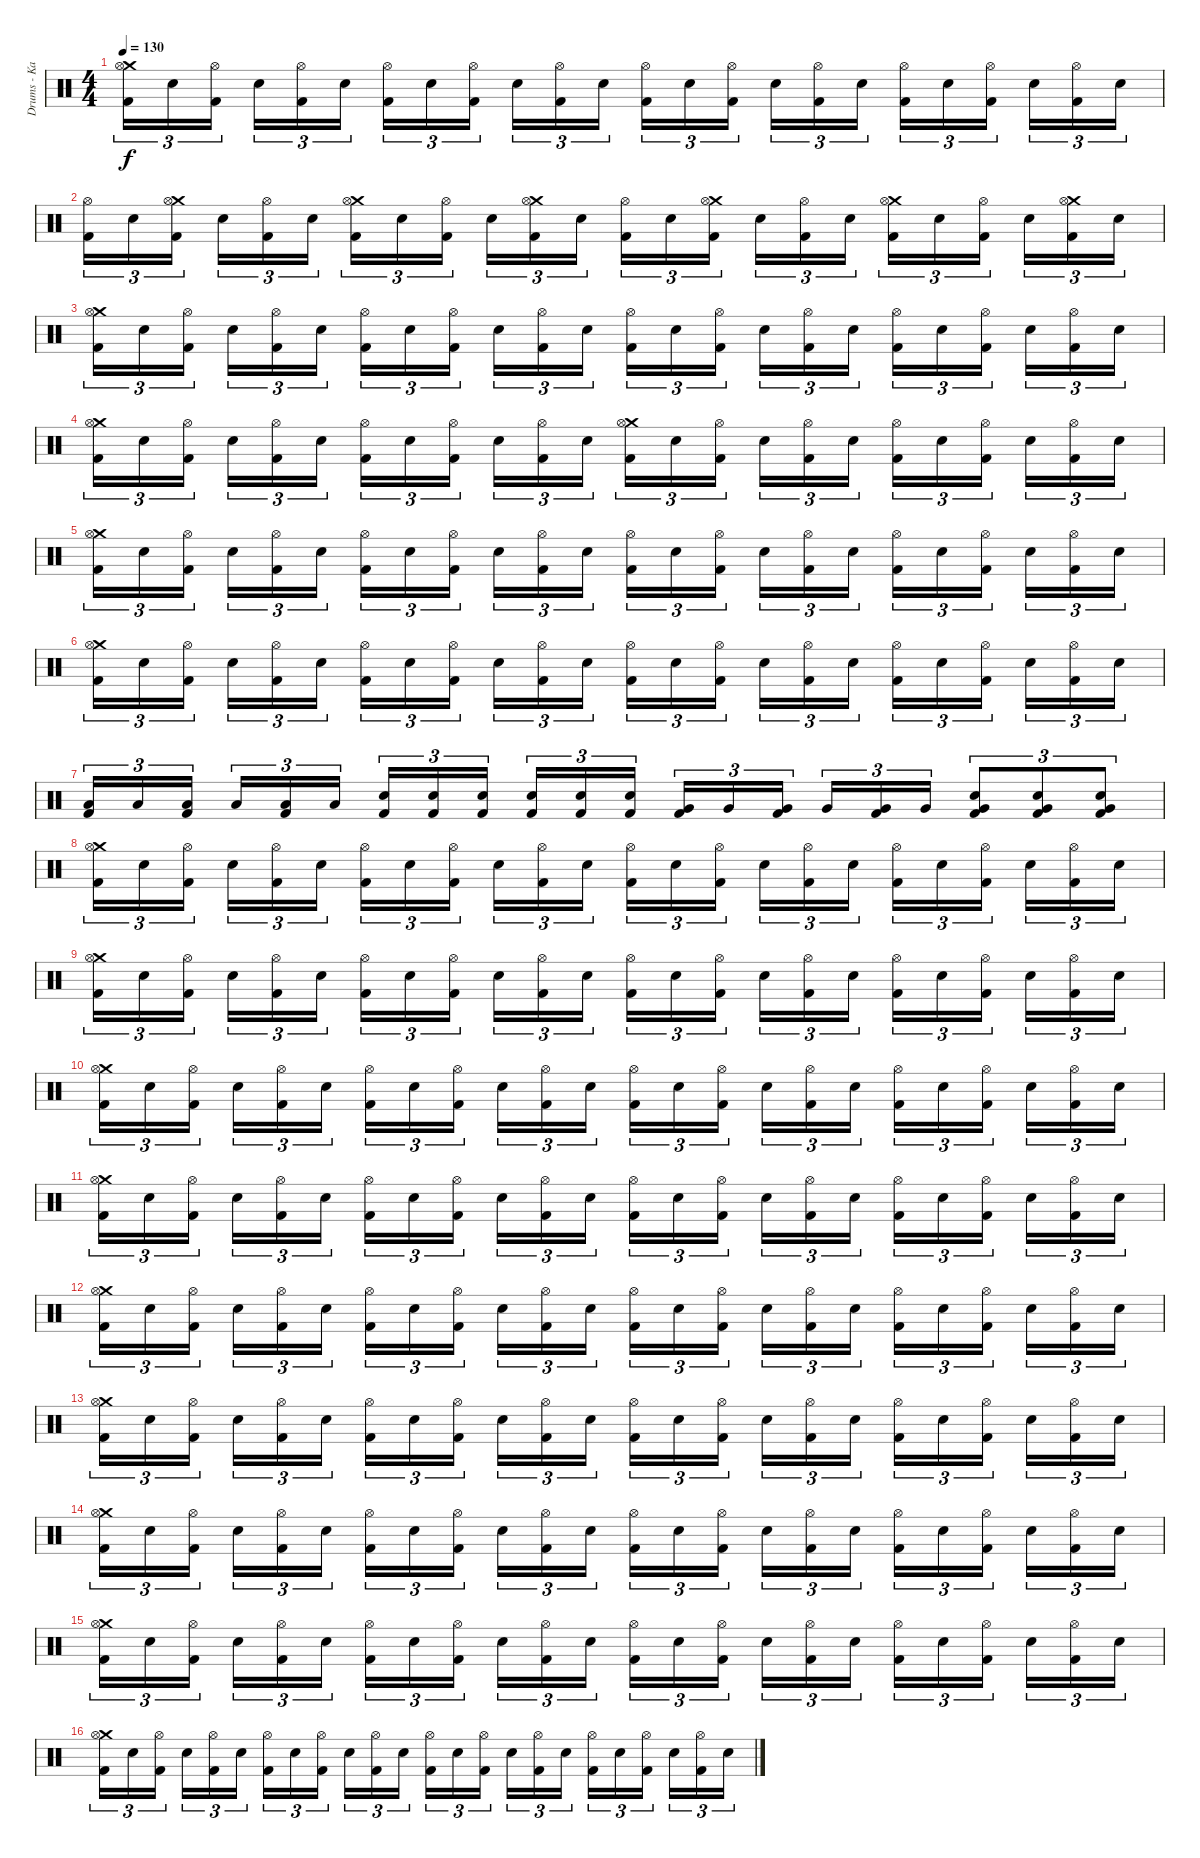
\track ("Drums - Kai Hahto " "Drums - Ka") {instrument percussion}
\staff {score}
\articulation defaults
\ts (4 4)
\tempo 130
\clef neutral
\ks c
("Crash medium (hit)" "Hi-Hat (open)" "Kick (hit) 2").16{tu (3 2) dy f} "Snare (hit) 2".16{tu (3 2)} ("Hi-Hat (open)" "Kick (hit) 2").16{tu (3 2) beam splitsecondary} "Snare (hit) 2".16{tu (3 2)} ("Hi-Hat (open)" "Kick (hit) 2").16{tu (3 2)} "Snare (hit) 2".16{tu (3 2)} ("Hi-Hat (open)" "Kick (hit) 2").16{tu (3 2)} "Snare (hit) 2".16{tu (3 2)} ("Hi-Hat (open)" "Kick (hit) 2").16{tu (3 2) beam splitsecondary} "Snare (hit) 2".16{tu (3 2)} ("Hi-Hat (open)" "Kick (hit) 2").16{tu (3 2)} "Snare (hit) 2".16{tu (3 2)} ("Hi-Hat (open)" "Kick (hit) 2").16{tu (3 2)} "Snare (hit) 2".16{tu (3 2)} ("Hi-Hat (open)" "Kick (hit) 2").16{tu (3 2) beam splitsecondary} "Snare (hit) 2".16{tu (3 2)} ("Hi-Hat (open)" "Kick (hit) 2").16{tu (3 2)} "Snare (hit) 2".16{tu (3 2)} ("Hi-Hat (open)" "Kick (hit) 2").16{tu (3 2)} "Snare (hit) 2".16{tu (3 2)} ("Hi-Hat (open)" "Kick (hit) 2").16{tu (3 2) beam splitsecondary} "Snare (hit) 2".16{tu (3 2)} ("Hi-Hat (open)" "Kick (hit) 2").16{tu (3 2)} "Snare (hit) 2".16{tu (3 2)} |
("Hi-Hat (open)" "Kick (hit) 2").16{tu (3 2)} "Snare (hit) 2".16{tu (3 2)} ("Crash medium (hit)" "Hi-Hat (open)" "Kick (hit) 2").16{tu (3 2) beam splitsecondary} "Snare (hit) 2".16{tu (3 2)} ("Hi-Hat (open)" "Kick (hit) 2").16{tu (3 2)} "Snare (hit) 2".16{tu (3 2)} ("Crash medium (hit)" "Hi-Hat (open)" "Kick (hit) 2").16{tu (3 2)} "Snare (hit) 2".16{tu (3 2)} ("Hi-Hat (open)" "Kick (hit) 2").16{tu (3 2) beam splitsecondary} "Snare (hit) 2".16{tu (3 2)} ("Crash medium (hit)" "Hi-Hat (open)" "Kick (hit) 2").16{tu (3 2)} "Snare (hit) 2".16{tu (3 2)} ("Hi-Hat (open)" "Kick (hit) 2").16{tu (3 2)} "Snare (hit) 2".16{tu (3 2)} ("Crash medium (hit)" "Hi-Hat (open)" "Kick (hit) 2").16{tu (3 2) beam splitsecondary} "Snare (hit) 2".16{tu (3 2)} ("Hi-Hat (open)" "Kick (hit) 2").16{tu (3 2)} "Snare (hit) 2".16{tu (3 2)} ("Crash medium (hit)" "Hi-Hat (open)" "Kick (hit) 2").16{tu (3 2)} "Snare (hit) 2".16{tu (3 2)} ("Hi-Hat (open)" "Kick (hit) 2").16{tu (3 2) beam splitsecondary} "Snare (hit) 2".16{tu (3 2)} ("Crash medium (hit)" "Hi-Hat (open)" "Kick (hit) 2").16{tu (3 2)} "Snare (hit) 2".16{tu (3 2)} |
("Crash medium (hit)" "Hi-Hat (open)" "Kick (hit) 2").16{tu (3 2)} "Snare (hit) 2".16{tu (3 2)} ("Hi-Hat (open)" "Kick (hit) 2").16{tu (3 2) beam splitsecondary} "Snare (hit) 2".16{tu (3 2)} ("Hi-Hat (open)" "Kick (hit) 2").16{tu (3 2)} "Snare (hit) 2".16{tu (3 2)} ("Hi-Hat (open)" "Kick (hit) 2").16{tu (3 2)} "Snare (hit) 2".16{tu (3 2)} ("Hi-Hat (open)" "Kick (hit) 2").16{tu (3 2) beam splitsecondary} "Snare (hit) 2".16{tu (3 2)} ("Hi-Hat (open)" "Kick (hit) 2").16{tu (3 2)} "Snare (hit) 2".16{tu (3 2)} ("Hi-Hat (open)" "Kick (hit) 2").16{tu (3 2)} "Snare (hit) 2".16{tu (3 2)} ("Hi-Hat (open)" "Kick (hit) 2").16{tu (3 2) beam splitsecondary} "Snare (hit) 2".16{tu (3 2)} ("Hi-Hat (open)" "Kick (hit) 2").16{tu (3 2)} "Snare (hit) 2".16{tu (3 2)} ("Hi-Hat (open)" "Kick (hit) 2").16{tu (3 2)} "Snare (hit) 2".16{tu (3 2)} ("Hi-Hat (open)" "Kick (hit) 2").16{tu (3 2) beam splitsecondary} "Snare (hit) 2".16{tu (3 2)} ("Hi-Hat (open)" "Kick (hit) 2").16{tu (3 2)} "Snare (hit) 2".16{tu (3 2)} |
("Crash medium (hit)" "Hi-Hat (open)" "Kick (hit) 2").16{tu (3 2)} "Snare (hit) 2".16{tu (3 2)} ("Hi-Hat (open)" "Kick (hit) 2").16{tu (3 2) beam splitsecondary} "Snare (hit) 2".16{tu (3 2)} ("Hi-Hat (open)" "Kick (hit) 2").16{tu (3 2)} "Snare (hit) 2".16{tu (3 2)} ("Hi-Hat (open)" "Kick (hit) 2").16{tu (3 2)} "Snare (hit) 2".16{tu (3 2)} ("Hi-Hat (open)" "Kick (hit) 2").16{tu (3 2) beam splitsecondary} "Snare (hit) 2".16{tu (3 2)} ("Hi-Hat (open)" "Kick (hit) 2").16{tu (3 2)} "Snare (hit) 2".16{tu (3 2)} ("Crash medium (hit)" "Hi-Hat (open)" "Kick (hit) 2").16{tu (3 2)} "Snare (hit) 2".16{tu (3 2)} ("Hi-Hat (open)" "Kick (hit) 2").16{tu (3 2) beam splitsecondary} "Snare (hit) 2".16{tu (3 2)} ("Hi-Hat (open)" "Kick (hit) 2").16{tu (3 2)} "Snare (hit) 2".16{tu (3 2)} ("Hi-Hat (open)" "Kick (hit) 2").16{tu (3 2)} "Snare (hit) 2".16{tu (3 2)} ("Hi-Hat (open)" "Kick (hit) 2").16{tu (3 2) beam splitsecondary} "Snare (hit) 2".16{tu (3 2)} ("Hi-Hat (open)" "Kick (hit) 2").16{tu (3 2)} "Snare (hit) 2".16{tu (3 2)} |
("Crash medium (hit)" "Hi-Hat (open)" "Kick (hit) 2").16{tu (3 2)} "Snare (hit) 2".16{tu (3 2)} ("Hi-Hat (open)" "Kick (hit) 2").16{tu (3 2) beam splitsecondary} "Snare (hit) 2".16{tu (3 2)} ("Hi-Hat (open)" "Kick (hit) 2").16{tu (3 2)} "Snare (hit) 2".16{tu (3 2)} ("Hi-Hat (open)" "Kick (hit) 2").16{tu (3 2)} "Snare (hit) 2".16{tu (3 2)} ("Hi-Hat (open)" "Kick (hit) 2").16{tu (3 2) beam splitsecondary} "Snare (hit) 2".16{tu (3 2)} ("Hi-Hat (open)" "Kick (hit) 2").16{tu (3 2)} "Snare (hit) 2".16{tu (3 2)} ("Hi-Hat (open)" "Kick (hit) 2").16{tu (3 2)} "Snare (hit) 2".16{tu (3 2)} ("Hi-Hat (open)" "Kick (hit) 2").16{tu (3 2) beam splitsecondary} "Snare (hit) 2".16{tu (3 2)} ("Hi-Hat (open)" "Kick (hit) 2").16{tu (3 2)} "Snare (hit) 2".16{tu (3 2)} ("Hi-Hat (open)" "Kick (hit) 2").16{tu (3 2)} "Snare (hit) 2".16{tu (3 2)} ("Hi-Hat (open)" "Kick (hit) 2").16{tu (3 2) beam splitsecondary} "Snare (hit) 2".16{tu (3 2)} ("Hi-Hat (open)" "Kick (hit) 2").16{tu (3 2)} "Snare (hit) 2".16{tu (3 2)} |
("Crash medium (hit)" "Hi-Hat (open)" "Kick (hit) 2").16{tu (3 2)} "Snare (hit) 2".16{tu (3 2)} ("Hi-Hat (open)" "Kick (hit) 2").16{tu (3 2) beam splitsecondary} "Snare (hit) 2".16{tu (3 2)} ("Hi-Hat (open)" "Kick (hit) 2").16{tu (3 2)} "Snare (hit) 2".16{tu (3 2)} ("Hi-Hat (open)" "Kick (hit) 2").16{tu (3 2)} "Snare (hit) 2".16{tu (3 2)} ("Hi-Hat (open)" "Kick (hit) 2").16{tu (3 2) beam splitsecondary} "Snare (hit) 2".16{tu (3 2)} ("Hi-Hat (open)" "Kick (hit) 2").16{tu (3 2)} "Snare (hit) 2".16{tu (3 2)} ("Hi-Hat (open)" "Kick (hit) 2").16{tu (3 2)} "Snare (hit) 2".16{tu (3 2)} ("Hi-Hat (open)" "Kick (hit) 2").16{tu (3 2) beam splitsecondary} "Snare (hit) 2".16{tu (3 2)} ("Hi-Hat (open)" "Kick (hit) 2").16{tu (3 2)} "Snare (hit) 2".16{tu (3 2)} ("Hi-Hat (open)" "Kick (hit) 2").16{tu (3 2)} "Snare (hit) 2".16{tu (3 2)} ("Hi-Hat (open)" "Kick (hit) 2").16{tu (3 2) beam splitsecondary} "Snare (hit) 2".16{tu (3 2)} ("Hi-Hat (open)" "Kick (hit) 2").16{tu (3 2)} "Snare (hit) 2".16{tu (3 2)} |
("Low Tom (hit)" "Kick (hit) 2").16{tu (3 2)} "Low Tom (hit)".16{tu (3 2)} ("Low Tom (hit)" "Kick (hit) 2").16{tu (3 2) beam splitsecondary} "Low Tom (hit)".16{tu (3 2)} ("Low Tom (hit)" "Kick (hit) 2").16{tu (3 2)} "Low Tom (hit)".16{tu (3 2)} ("Snare (hit) 2" "Kick (hit) 2").16{tu (3 2)} ("Snare (hit) 2" "Kick (hit) 2").16{tu (3 2)} ("Snare (hit) 2" "Kick (hit) 2").16{tu (3 2) beam splitsecondary} ("Snare (hit) 2" "Kick (hit) 2").16{tu (3 2)} ("Snare (hit) 2" "Kick (hit) 2").16{tu (3 2)} ("Snare (hit) 2" "Kick (hit) 2").16{tu (3 2)} ("Very Low Tom (hit)" "Kick (hit) 2").16{tu (3 2)} "Very Low Tom (hit)".16{tu (3 2)} ("Very Low Tom (hit)" "Kick (hit) 2").16{tu (3 2) beam splitsecondary} "Very Low Tom (hit)".16{tu (3 2)} ("Very Low Tom (hit)" "Kick (hit) 2").16{tu (3 2)} "Very Low Tom (hit)".16{tu (3 2)} ("Very Low Tom (hit)" "Snare (hit) 2" "Kick (hit) 2").8{tu (3 2)} ("Very Low Tom (hit)" "Snare (hit) 2" "Kick (hit) 2").8{tu (3 2)} ("Very Low Tom (hit)" "Snare (hit) 2" "Kick (hit) 2").8{tu (3 2)} |
("Crash medium (hit)" "Hi-Hat (open)" "Kick (hit) 2").16{tu (3 2)} "Snare (hit) 2".16{tu (3 2)} ("Hi-Hat (open)" "Kick (hit) 2").16{tu (3 2) beam splitsecondary} "Snare (hit) 2".16{tu (3 2)} ("Hi-Hat (open)" "Kick (hit) 2").16{tu (3 2)} "Snare (hit) 2".16{tu (3 2)} ("Hi-Hat (open)" "Kick (hit) 2").16{tu (3 2)} "Snare (hit) 2".16{tu (3 2)} ("Hi-Hat (open)" "Kick (hit) 2").16{tu (3 2) beam splitsecondary} "Snare (hit) 2".16{tu (3 2)} ("Hi-Hat (open)" "Kick (hit) 2").16{tu (3 2)} "Snare (hit) 2".16{tu (3 2)} ("Hi-Hat (open)" "Kick (hit) 2").16{tu (3 2)} "Snare (hit) 2".16{tu (3 2)} ("Hi-Hat (open)" "Kick (hit) 2").16{tu (3 2) beam splitsecondary} "Snare (hit) 2".16{tu (3 2)} ("Hi-Hat (open)" "Kick (hit) 2").16{tu (3 2)} "Snare (hit) 2".16{tu (3 2)} ("Hi-Hat (open)" "Kick (hit) 2").16{tu (3 2)} "Snare (hit) 2".16{tu (3 2)} ("Hi-Hat (open)" "Kick (hit) 2").16{tu (3 2) beam splitsecondary} "Snare (hit) 2".16{tu (3 2)} ("Hi-Hat (open)" "Kick (hit) 2").16{tu (3 2)} "Snare (hit) 2".16{tu (3 2)} |
("Crash medium (hit)" "Hi-Hat (open)" "Kick (hit) 2").16{tu (3 2)} "Snare (hit) 2".16{tu (3 2)} ("Hi-Hat (open)" "Kick (hit) 2").16{tu (3 2) beam splitsecondary} "Snare (hit) 2".16{tu (3 2)} ("Hi-Hat (open)" "Kick (hit) 2").16{tu (3 2)} "Snare (hit) 2".16{tu (3 2)} ("Hi-Hat (open)" "Kick (hit) 2").16{tu (3 2)} "Snare (hit) 2".16{tu (3 2)} ("Hi-Hat (open)" "Kick (hit) 2").16{tu (3 2) beam splitsecondary} "Snare (hit) 2".16{tu (3 2)} ("Hi-Hat (open)" "Kick (hit) 2").16{tu (3 2)} "Snare (hit) 2".16{tu (3 2)} ("Hi-Hat (open)" "Kick (hit) 2").16{tu (3 2)} "Snare (hit) 2".16{tu (3 2)} ("Hi-Hat (open)" "Kick (hit) 2").16{tu (3 2) beam splitsecondary} "Snare (hit) 2".16{tu (3 2)} ("Hi-Hat (open)" "Kick (hit) 2").16{tu (3 2)} "Snare (hit) 2".16{tu (3 2)} ("Hi-Hat (open)" "Kick (hit) 2").16{tu (3 2)} "Snare (hit) 2".16{tu (3 2)} ("Hi-Hat (open)" "Kick (hit) 2").16{tu (3 2) beam splitsecondary} "Snare (hit) 2".16{tu (3 2)} ("Hi-Hat (open)" "Kick (hit) 2").16{tu (3 2)} "Snare (hit) 2".16{tu (3 2)} |
("Crash medium (hit)" "Hi-Hat (open)" "Kick (hit) 2").16{tu (3 2)} "Snare (hit) 2".16{tu (3 2)} ("Hi-Hat (open)" "Kick (hit) 2").16{tu (3 2) beam splitsecondary} "Snare (hit) 2".16{tu (3 2)} ("Hi-Hat (open)" "Kick (hit) 2").16{tu (3 2)} "Snare (hit) 2".16{tu (3 2)} ("Hi-Hat (open)" "Kick (hit) 2").16{tu (3 2)} "Snare (hit) 2".16{tu (3 2)} ("Hi-Hat (open)" "Kick (hit) 2").16{tu (3 2) beam splitsecondary} "Snare (hit) 2".16{tu (3 2)} ("Hi-Hat (open)" "Kick (hit) 2").16{tu (3 2)} "Snare (hit) 2".16{tu (3 2)} ("Hi-Hat (open)" "Kick (hit) 2").16{tu (3 2)} "Snare (hit) 2".16{tu (3 2)} ("Hi-Hat (open)" "Kick (hit) 2").16{tu (3 2) beam splitsecondary} "Snare (hit) 2".16{tu (3 2)} ("Hi-Hat (open)" "Kick (hit) 2").16{tu (3 2)} "Snare (hit) 2".16{tu (3 2)} ("Hi-Hat (open)" "Kick (hit) 2").16{tu (3 2)} "Snare (hit) 2".16{tu (3 2)} ("Hi-Hat (open)" "Kick (hit) 2").16{tu (3 2) beam splitsecondary} "Snare (hit) 2".16{tu (3 2)} ("Hi-Hat (open)" "Kick (hit) 2").16{tu (3 2)} "Snare (hit) 2".16{tu (3 2)} |
("Crash medium (hit)" "Hi-Hat (open)" "Kick (hit) 2").16{tu (3 2)} "Snare (hit) 2".16{tu (3 2)} ("Hi-Hat (open)" "Kick (hit) 2").16{tu (3 2) beam splitsecondary} "Snare (hit) 2".16{tu (3 2)} ("Hi-Hat (open)" "Kick (hit) 2").16{tu (3 2)} "Snare (hit) 2".16{tu (3 2)} ("Hi-Hat (open)" "Kick (hit) 2").16{tu (3 2)} "Snare (hit) 2".16{tu (3 2)} ("Hi-Hat (open)" "Kick (hit) 2").16{tu (3 2) beam splitsecondary} "Snare (hit) 2".16{tu (3 2)} ("Hi-Hat (open)" "Kick (hit) 2").16{tu (3 2)} "Snare (hit) 2".16{tu (3 2)} ("Hi-Hat (open)" "Kick (hit) 2").16{tu (3 2)} "Snare (hit) 2".16{tu (3 2)} ("Hi-Hat (open)" "Kick (hit) 2").16{tu (3 2) beam splitsecondary} "Snare (hit) 2".16{tu (3 2)} ("Hi-Hat (open)" "Kick (hit) 2").16{tu (3 2)} "Snare (hit) 2".16{tu (3 2)} ("Hi-Hat (open)" "Kick (hit) 2").16{tu (3 2)} "Snare (hit) 2".16{tu (3 2)} ("Hi-Hat (open)" "Kick (hit) 2").16{tu (3 2) beam splitsecondary} "Snare (hit) 2".16{tu (3 2)} ("Hi-Hat (open)" "Kick (hit) 2").16{tu (3 2)} "Snare (hit) 2".16{tu (3 2)} |
("Crash medium (hit)" "Hi-Hat (open)" "Kick (hit) 2").16{tu (3 2)} "Snare (hit) 2".16{tu (3 2)} ("Hi-Hat (open)" "Kick (hit) 2").16{tu (3 2) beam splitsecondary} "Snare (hit) 2".16{tu (3 2)} ("Hi-Hat (open)" "Kick (hit) 2").16{tu (3 2)} "Snare (hit) 2".16{tu (3 2)} ("Hi-Hat (open)" "Kick (hit) 2").16{tu (3 2)} "Snare (hit) 2".16{tu (3 2)} ("Hi-Hat (open)" "Kick (hit) 2").16{tu (3 2) beam splitsecondary} "Snare (hit) 2".16{tu (3 2)} ("Hi-Hat (open)" "Kick (hit) 2").16{tu (3 2)} "Snare (hit) 2".16{tu (3 2)} ("Hi-Hat (open)" "Kick (hit) 2").16{tu (3 2)} "Snare (hit) 2".16{tu (3 2)} ("Hi-Hat (open)" "Kick (hit) 2").16{tu (3 2) beam splitsecondary} "Snare (hit) 2".16{tu (3 2)} ("Hi-Hat (open)" "Kick (hit) 2").16{tu (3 2)} "Snare (hit) 2".16{tu (3 2)} ("Hi-Hat (open)" "Kick (hit) 2").16{tu (3 2)} "Snare (hit) 2".16{tu (3 2)} ("Hi-Hat (open)" "Kick (hit) 2").16{tu (3 2) beam splitsecondary} "Snare (hit) 2".16{tu (3 2)} ("Hi-Hat (open)" "Kick (hit) 2").16{tu (3 2)} "Snare (hit) 2".16{tu (3 2)} |
("Crash medium (hit)" "Hi-Hat (open)" "Kick (hit) 2").16{tu (3 2)} "Snare (hit) 2".16{tu (3 2)} ("Hi-Hat (open)" "Kick (hit) 2").16{tu (3 2) beam splitsecondary} "Snare (hit) 2".16{tu (3 2)} ("Hi-Hat (open)" "Kick (hit) 2").16{tu (3 2)} "Snare (hit) 2".16{tu (3 2)} ("Hi-Hat (open)" "Kick (hit) 2").16{tu (3 2)} "Snare (hit) 2".16{tu (3 2)} ("Hi-Hat (open)" "Kick (hit) 2").16{tu (3 2) beam splitsecondary} "Snare (hit) 2".16{tu (3 2)} ("Hi-Hat (open)" "Kick (hit) 2").16{tu (3 2)} "Snare (hit) 2".16{tu (3 2)} ("Hi-Hat (open)" "Kick (hit) 2").16{tu (3 2)} "Snare (hit) 2".16{tu (3 2)} ("Hi-Hat (open)" "Kick (hit) 2").16{tu (3 2) beam splitsecondary} "Snare (hit) 2".16{tu (3 2)} ("Hi-Hat (open)" "Kick (hit) 2").16{tu (3 2)} "Snare (hit) 2".16{tu (3 2)} ("Hi-Hat (open)" "Kick (hit) 2").16{tu (3 2)} "Snare (hit) 2".16{tu (3 2)} ("Hi-Hat (open)" "Kick (hit) 2").16{tu (3 2) beam splitsecondary} "Snare (hit) 2".16{tu (3 2)} ("Hi-Hat (open)" "Kick (hit) 2").16{tu (3 2)} "Snare (hit) 2".16{tu (3 2)} |
("Crash medium (hit)" "Hi-Hat (open)" "Kick (hit) 2").16{tu (3 2)} "Snare (hit) 2".16{tu (3 2)} ("Hi-Hat (open)" "Kick (hit) 2").16{tu (3 2) beam splitsecondary} "Snare (hit) 2".16{tu (3 2)} ("Hi-Hat (open)" "Kick (hit) 2").16{tu (3 2)} "Snare (hit) 2".16{tu (3 2)} ("Hi-Hat (open)" "Kick (hit) 2").16{tu (3 2)} "Snare (hit) 2".16{tu (3 2)} ("Hi-Hat (open)" "Kick (hit) 2").16{tu (3 2) beam splitsecondary} "Snare (hit) 2".16{tu (3 2)} ("Hi-Hat (open)" "Kick (hit) 2").16{tu (3 2)} "Snare (hit) 2".16{tu (3 2)} ("Hi-Hat (open)" "Kick (hit) 2").16{tu (3 2)} "Snare (hit) 2".16{tu (3 2)} ("Hi-Hat (open)" "Kick (hit) 2").16{tu (3 2) beam splitsecondary} "Snare (hit) 2".16{tu (3 2)} ("Hi-Hat (open)" "Kick (hit) 2").16{tu (3 2)} "Snare (hit) 2".16{tu (3 2)} ("Hi-Hat (open)" "Kick (hit) 2").16{tu (3 2)} "Snare (hit) 2".16{tu (3 2)} ("Hi-Hat (open)" "Kick (hit) 2").16{tu (3 2) beam splitsecondary} "Snare (hit) 2".16{tu (3 2)} ("Hi-Hat (open)" "Kick (hit) 2").16{tu (3 2)} "Snare (hit) 2".16{tu (3 2)} |
("Crash medium (hit)" "Hi-Hat (open)" "Kick (hit) 2").16{tu (3 2)} "Snare (hit) 2".16{tu (3 2)} ("Hi-Hat (open)" "Kick (hit) 2").16{tu (3 2) beam splitsecondary} "Snare (hit) 2".16{tu (3 2)} ("Hi-Hat (open)" "Kick (hit) 2").16{tu (3 2)} "Snare (hit) 2".16{tu (3 2)} ("Hi-Hat (open)" "Kick (hit) 2").16{tu (3 2)} "Snare (hit) 2".16{tu (3 2)} ("Hi-Hat (open)" "Kick (hit) 2").16{tu (3 2) beam splitsecondary} "Snare (hit) 2".16{tu (3 2)} ("Hi-Hat (open)" "Kick (hit) 2").16{tu (3 2)} "Snare (hit) 2".16{tu (3 2)} ("Hi-Hat (open)" "Kick (hit) 2").16{tu (3 2)} "Snare (hit) 2".16{tu (3 2)} ("Hi-Hat (open)" "Kick (hit) 2").16{tu (3 2) beam splitsecondary} "Snare (hit) 2".16{tu (3 2)} ("Hi-Hat (open)" "Kick (hit) 2").16{tu (3 2)} "Snare (hit) 2".16{tu (3 2)} ("Hi-Hat (open)" "Kick (hit) 2").16{tu (3 2)} "Snare (hit) 2".16{tu (3 2)} ("Hi-Hat (open)" "Kick (hit) 2").16{tu (3 2) beam splitsecondary} "Snare (hit) 2".16{tu (3 2)} ("Hi-Hat (open)" "Kick (hit) 2").16{tu (3 2)} "Snare (hit) 2".16{tu (3 2)} |
("Crash medium (hit)" "Hi-Hat (open)" "Kick (hit) 2").16{tu (3 2)} "Snare (hit) 2".16{tu (3 2)} ("Hi-Hat (open)" "Kick (hit) 2").16{tu (3 2) beam splitsecondary} "Snare (hit) 2".16{tu (3 2)} ("Hi-Hat (open)" "Kick (hit) 2").16{tu (3 2)} "Snare (hit) 2".16{tu (3 2)} ("Hi-Hat (open)" "Kick (hit) 2").16{tu (3 2)} "Snare (hit) 2".16{tu (3 2)} ("Hi-Hat (open)" "Kick (hit) 2").16{tu (3 2) beam splitsecondary} "Snare (hit) 2".16{tu (3 2)} ("Hi-Hat (open)" "Kick (hit) 2").16{tu (3 2)} "Snare (hit) 2".16{tu (3 2)} ("Hi-Hat (open)" "Kick (hit) 2").16{tu (3 2)} "Snare (hit) 2".16{tu (3 2)} ("Hi-Hat (open)" "Kick (hit) 2").16{tu (3 2) beam splitsecondary} "Snare (hit) 2".16{tu (3 2)} ("Hi-Hat (open)" "Kick (hit) 2").16{tu (3 2)} "Snare (hit) 2".16{tu (3 2)} ("Hi-Hat (open)" "Kick (hit) 2").16{tu (3 2)} "Snare (hit) 2".16{tu (3 2)} ("Hi-Hat (open)" "Kick (hit) 2").16{tu (3 2) beam splitsecondary} "Snare (hit) 2".16{tu (3 2)} ("Hi-Hat (open)" "Kick (hit) 2").16{tu (3 2)} "Snare (hit) 2".16{tu (3 2)}
